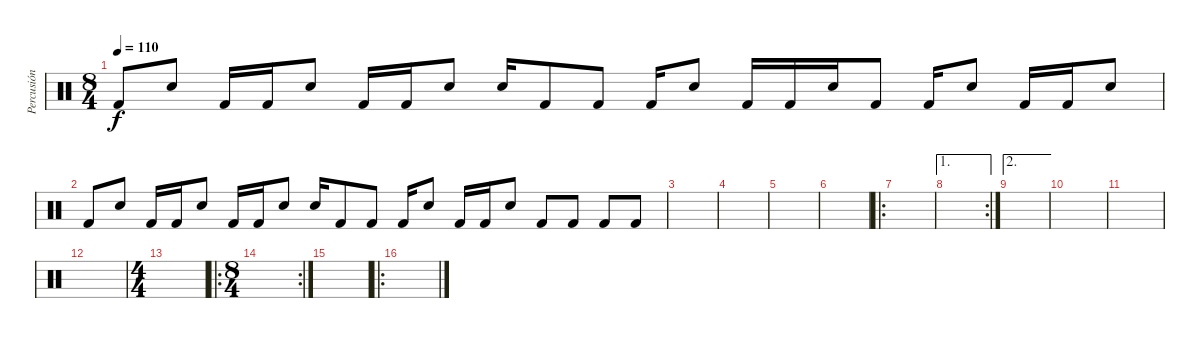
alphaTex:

\track ("Percusión" "Percusión") {mute instrument percussion}
\staff {score}
\articulation defaults
\ts (8 4)
\tempo 110
\clef neutral
\ks c "Kick (hit) 2".8{dy f} "Snare (hit) 2".8 "Kick (hit) 2".16 "Kick (hit) 2".16 "Snare (hit) 2".8 "Kick (hit) 2".16 "Kick (hit) 2".16 "Snare (hit) 2".8 "Snare (hit) 2".16 "Kick (hit) 2".8 "Kick (hit) 2".8 "Kick (hit) 2".16 "Snare (hit) 2".8 "Kick (hit) 2".16 "Kick (hit) 2".16 "Snare (hit) 2".16 "Kick (hit) 2".8 "Kick (hit) 2".16 "Snare (hit) 2".8 "Kick (hit) 2".16 "Kick (hit) 2".16 "Snare (hit) 2".8
|
"Kick (hit) 2".8 "Snare (hit) 2".8 "Kick (hit) 2".16 "Kick (hit) 2".16 "Snare (hit) 2".8 "Kick (hit) 2".16 "Kick (hit) 2".16 "Snare (hit) 2".8 "Snare (hit) 2".16 "Kick (hit) 2".8 "Kick (hit) 2".8 "Kick (hit) 2".16 "Snare (hit) 2".8 "Kick (hit) 2".16 "Kick (hit) 2".16 "Snare (hit) 2".8 "Kick (hit) 2".8 "Kick (hit) 2".8 "Kick (hit) 2".8 "Kick (hit) 2".8 |
|
|
|
|
\ro
|
\ae 1
\rc 2
|
\ae 2
|
|
|
|
\ts (4 4)
|
\ro
\rc 2
\ts (8 4)
|
|
\ro
